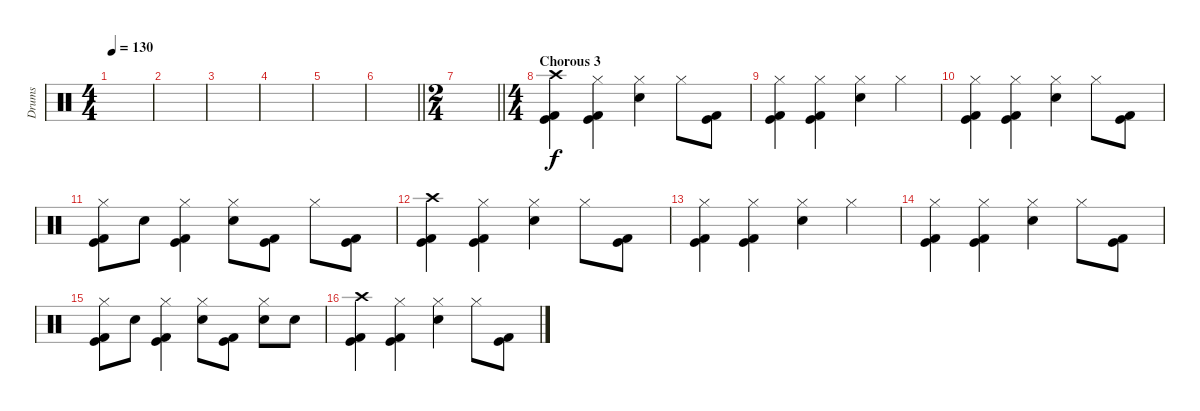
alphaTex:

\track ("Drums" "Drums") {instrument percussion}
\staff {score}
\articulation defaults
\ts (4 4)
\tempo 130
\clef neutral
\ks c
|
|
|
|
|
\barLineRight lightlight
|
\ts (2 4)
\barLineRight lightlight
|
\ts (4 4)
\section ("" "Chorous 3")
("Crash high (hit)" "Kick (hit)" "Kick (hit) 2").4{dy f} ("Hi-Hat (closed)" "Kick (hit)" "Kick (hit) 2").4 ("Hi-Hat (closed)" "Electric Snare (hit)").4 "Hi-Hat (closed)".8 ("Kick (hit)" "Kick (hit) 2").8 |
("Hi-Hat (closed)" "Kick (hit)" "Kick (hit) 2").4 ("Hi-Hat (closed)" "Kick (hit)" "Kick (hit) 2").4 ("Hi-Hat (closed)" "Electric Snare (hit)").4 "Hi-Hat (closed)".4 |
("Hi-Hat (closed)" "Kick (hit)" "Kick (hit) 2").4 ("Hi-Hat (closed)" "Kick (hit)" "Kick (hit) 2").4 ("Hi-Hat (closed)" "Electric Snare (hit)").4 "Hi-Hat (closed)".8 ("Kick (hit)" "Kick (hit) 2").8 |
("Hi-Hat (closed)" "Kick (hit)" "Kick (hit) 2").8 "Electric Snare (hit)".8 ("Hi-Hat (closed)" "Kick (hit)" "Kick (hit) 2").4 ("Hi-Hat (closed)" "Electric Snare (hit)").8 ("Kick (hit)" "Kick (hit) 2").8 "Hi-Hat (closed)".8 ("Kick (hit)" "Kick (hit) 2").8 |
("Crash high (hit)" "Kick (hit)" "Kick (hit) 2").4 ("Hi-Hat (closed)" "Kick (hit)" "Kick (hit) 2").4 ("Hi-Hat (closed)" "Electric Snare (hit)").4 "Hi-Hat (closed)".8 ("Kick (hit)" "Kick (hit) 2").8 |
("Hi-Hat (closed)" "Kick (hit)" "Kick (hit) 2").4 ("Hi-Hat (closed)" "Kick (hit)" "Kick (hit) 2").4 ("Hi-Hat (closed)" "Electric Snare (hit)").4 "Hi-Hat (closed)".4 |
("Hi-Hat (closed)" "Kick (hit)" "Kick (hit) 2").4 ("Hi-Hat (closed)" "Kick (hit)" "Kick (hit) 2").4 ("Hi-Hat (closed)" "Electric Snare (hit)").4 "Hi-Hat (closed)".8 ("Kick (hit)" "Kick (hit) 2").8 |
("Hi-Hat (closed)" "Kick (hit)" "Kick (hit) 2").8 "Electric Snare (hit)".8 ("Hi-Hat (closed)" "Kick (hit)" "Kick (hit) 2").4 ("Hi-Hat (closed)" "Electric Snare (hit)").8 ("Kick (hit)" "Kick (hit) 2").8 ("Hi-Hat (closed)" "Electric Snare (hit)").8 "Electric Snare (hit)".8 |
("Crash high (hit)" "Kick (hit)" "Kick (hit) 2").4 ("Hi-Hat (closed)" "Kick (hit)" "Kick (hit) 2").4 ("Hi-Hat (closed)" "Electric Snare (hit)").4 "Hi-Hat (closed)".8 ("Kick (hit)" "Kick (hit) 2").8
